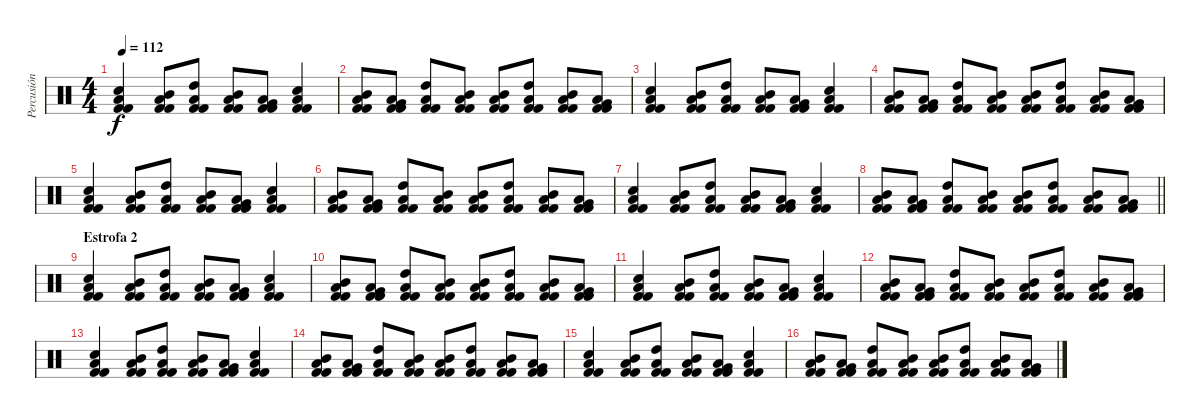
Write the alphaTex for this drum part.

\track ("Percusión" "Percusión") {instrument percussion}
\staff {score}
\articulation defaults
\ts (4 4)
\tempo 112
\clef neutral
\ks c
("Kick (hit) 2" "Electric Snare (hit)" "Low Tom (hit)" "Kick (hit) 2").4{dy f} ("Kick (hit) 2" "Mid Tom (hit)" "Low Tom (hit)" "Kick (hit) 2").8 ("Kick (hit) 2" "High Tom (hit)" "Low Tom (hit)" "Kick (hit) 2").8 ("Kick (hit) 2" "Mid Tom (hit)" "Low Tom (hit)" "Kick (hit) 2").8 ("Kick (hit) 2" "Low Tom (hit)" "Very Low Tom (hit)" "Kick (hit) 2").8 ("Kick (hit) 2" "Electric Snare (hit)" "Low Tom (hit)" "Kick (hit) 2").4 |
("Kick (hit) 2" "Low Tom (hit)" "Mid Tom (hit)" "Kick (hit) 2").8 ("Kick (hit) 2" "Very Low Tom (hit)" "Low Tom (hit)" "Kick (hit) 2").8 ("Kick (hit) 2" "High Tom (hit)" "Low Tom (hit)" "Kick (hit) 2").8 ("Kick (hit) 2" "Low Tom (hit)" "Mid Tom (hit)" "Kick (hit) 2").8 ("Kick (hit) 2" "Low Tom (hit)" "Mid Tom (hit)" "Kick (hit) 2").8 ("Kick (hit) 2" "High Tom (hit)" "Low Tom (hit)" "Kick (hit) 2").8 ("Kick (hit) 2" "Low Tom (hit)" "Mid Tom (hit)" "Kick (hit) 2").8 ("Kick (hit) 2" "Very Low Tom (hit)" "Low Tom (hit)" "Kick (hit) 2").8 |
("Kick (hit) 2" "Electric Snare (hit)" "Low Tom (hit)" "Kick (hit) 2").4 ("Kick (hit) 2" "Mid Tom (hit)" "Low Tom (hit)" "Kick (hit) 2").8 ("Kick (hit) 2" "High Tom (hit)" "Low Tom (hit)" "Kick (hit) 2").8 ("Kick (hit) 2" "Mid Tom (hit)" "Low Tom (hit)" "Kick (hit) 2").8 ("Kick (hit) 2" "Low Tom (hit)" "Very Low Tom (hit)" "Kick (hit) 2").8 ("Kick (hit) 2" "Electric Snare (hit)" "Low Tom (hit)" "Kick (hit) 2").4 |
("Kick (hit) 2" "Low Tom (hit)" "Mid Tom (hit)" "Kick (hit) 2").8 ("Kick (hit) 2" "Very Low Tom (hit)" "Low Tom (hit)" "Kick (hit) 2").8 ("Kick (hit) 2" "High Tom (hit)" "Low Tom (hit)" "Kick (hit) 2").8 ("Kick (hit) 2" "Low Tom (hit)" "Mid Tom (hit)" "Kick (hit) 2").8 ("Kick (hit) 2" "Low Tom (hit)" "Mid Tom (hit)" "Kick (hit) 2").8 ("Kick (hit) 2" "High Tom (hit)" "Low Tom (hit)" "Kick (hit) 2").8 ("Kick (hit) 2" "Low Tom (hit)" "Mid Tom (hit)" "Kick (hit) 2").8 ("Kick (hit) 2" "Very Low Tom (hit)" "Low Tom (hit)" "Kick (hit) 2").8 |
("Kick (hit) 2" "Electric Snare (hit)" "Low Tom (hit)" "Kick (hit) 2").4 ("Kick (hit) 2" "Mid Tom (hit)" "Low Tom (hit)" "Kick (hit) 2").8 ("Kick (hit) 2" "High Tom (hit)" "Low Tom (hit)" "Kick (hit) 2").8 ("Kick (hit) 2" "Mid Tom (hit)" "Low Tom (hit)" "Kick (hit) 2").8 ("Kick (hit) 2" "Low Tom (hit)" "Very Low Tom (hit)" "Kick (hit) 2").8 ("Kick (hit) 2" "Electric Snare (hit)" "Low Tom (hit)" "Kick (hit) 2").4 |
("Kick (hit) 2" "Low Tom (hit)" "Mid Tom (hit)" "Kick (hit) 2").8 ("Kick (hit) 2" "Very Low Tom (hit)" "Low Tom (hit)" "Kick (hit) 2").8 ("Kick (hit) 2" "High Tom (hit)" "Low Tom (hit)" "Kick (hit) 2").8 ("Kick (hit) 2" "Low Tom (hit)" "Mid Tom (hit)" "Kick (hit) 2").8 ("Kick (hit) 2" "Low Tom (hit)" "Mid Tom (hit)" "Kick (hit) 2").8 ("Kick (hit) 2" "High Tom (hit)" "Low Tom (hit)" "Kick (hit) 2").8 ("Kick (hit) 2" "Low Tom (hit)" "Mid Tom (hit)" "Kick (hit) 2").8 ("Kick (hit) 2" "Very Low Tom (hit)" "Low Tom (hit)" "Kick (hit) 2").8 |
("Kick (hit) 2" "Electric Snare (hit)" "Low Tom (hit)" "Kick (hit) 2").4 ("Kick (hit) 2" "Mid Tom (hit)" "Low Tom (hit)" "Kick (hit) 2").8 ("Kick (hit) 2" "High Tom (hit)" "Low Tom (hit)" "Kick (hit) 2").8 ("Kick (hit) 2" "Mid Tom (hit)" "Low Tom (hit)" "Kick (hit) 2").8 ("Kick (hit) 2" "Low Tom (hit)" "Very Low Tom (hit)" "Kick (hit) 2").8 ("Kick (hit) 2" "Electric Snare (hit)" "Low Tom (hit)" "Kick (hit) 2").4 |
\barLineRight lightlight
("Kick (hit) 2" "Low Tom (hit)" "Mid Tom (hit)" "Kick (hit) 2").8 ("Kick (hit) 2" "Very Low Tom (hit)" "Low Tom (hit)" "Kick (hit) 2").8 ("Kick (hit) 2" "High Tom (hit)" "Low Tom (hit)" "Kick (hit) 2").8 ("Kick (hit) 2" "Low Tom (hit)" "Mid Tom (hit)" "Kick (hit) 2").8 ("Kick (hit) 2" "Low Tom (hit)" "Mid Tom (hit)" "Kick (hit) 2").8 ("Kick (hit) 2" "High Tom (hit)" "Low Tom (hit)" "Kick (hit) 2").8 ("Kick (hit) 2" "Low Tom (hit)" "Mid Tom (hit)" "Kick (hit) 2").8 ("Kick (hit) 2" "Very Low Tom (hit)" "Low Tom (hit)" "Kick (hit) 2").8 |
\section ("" "Estrofa 2")
("Kick (hit) 2" "Electric Snare (hit)" "Low Tom (hit)" "Kick (hit) 2").4 ("Kick (hit) 2" "Mid Tom (hit)" "Low Tom (hit)" "Kick (hit) 2").8 ("Kick (hit) 2" "High Tom (hit)" "Low Tom (hit)" "Kick (hit) 2").8 ("Kick (hit) 2" "Mid Tom (hit)" "Low Tom (hit)" "Kick (hit) 2").8 ("Kick (hit) 2" "Low Tom (hit)" "Very Low Tom (hit)" "Kick (hit) 2").8 ("Kick (hit) 2" "Electric Snare (hit)" "Low Tom (hit)" "Kick (hit) 2").4 |
("Kick (hit) 2" "Low Tom (hit)" "Mid Tom (hit)" "Kick (hit) 2").8 ("Kick (hit) 2" "Very Low Tom (hit)" "Low Tom (hit)" "Kick (hit) 2").8 ("Kick (hit) 2" "High Tom (hit)" "Low Tom (hit)" "Kick (hit) 2").8 ("Kick (hit) 2" "Low Tom (hit)" "Mid Tom (hit)" "Kick (hit) 2").8 ("Kick (hit) 2" "Low Tom (hit)" "Mid Tom (hit)" "Kick (hit) 2").8 ("Kick (hit) 2" "High Tom (hit)" "Low Tom (hit)" "Kick (hit) 2").8 ("Kick (hit) 2" "Low Tom (hit)" "Mid Tom (hit)" "Kick (hit) 2").8 ("Kick (hit) 2" "Very Low Tom (hit)" "Low Tom (hit)" "Kick (hit) 2").8 |
("Kick (hit) 2" "Electric Snare (hit)" "Low Tom (hit)" "Kick (hit) 2").4 ("Kick (hit) 2" "Mid Tom (hit)" "Low Tom (hit)" "Kick (hit) 2").8 ("Kick (hit) 2" "High Tom (hit)" "Low Tom (hit)" "Kick (hit) 2").8 ("Kick (hit) 2" "Mid Tom (hit)" "Low Tom (hit)" "Kick (hit) 2").8 ("Kick (hit) 2" "Low Tom (hit)" "Very Low Tom (hit)" "Kick (hit) 2").8 ("Kick (hit) 2" "Electric Snare (hit)" "Low Tom (hit)" "Kick (hit) 2").4 |
("Kick (hit) 2" "Low Tom (hit)" "Mid Tom (hit)" "Kick (hit) 2").8 ("Kick (hit) 2" "Very Low Tom (hit)" "Low Tom (hit)" "Kick (hit) 2").8 ("Kick (hit) 2" "High Tom (hit)" "Low Tom (hit)" "Kick (hit) 2").8 ("Kick (hit) 2" "Low Tom (hit)" "Mid Tom (hit)" "Kick (hit) 2").8 ("Kick (hit) 2" "Low Tom (hit)" "Mid Tom (hit)" "Kick (hit) 2").8 ("Kick (hit) 2" "High Tom (hit)" "Low Tom (hit)" "Kick (hit) 2").8 ("Kick (hit) 2" "Low Tom (hit)" "Mid Tom (hit)" "Kick (hit) 2").8 ("Kick (hit) 2" "Very Low Tom (hit)" "Low Tom (hit)" "Kick (hit) 2").8 |
("Kick (hit) 2" "Electric Snare (hit)" "Low Tom (hit)" "Kick (hit) 2").4 ("Kick (hit) 2" "Mid Tom (hit)" "Low Tom (hit)" "Kick (hit) 2").8 ("Kick (hit) 2" "High Tom (hit)" "Low Tom (hit)" "Kick (hit) 2").8 ("Kick (hit) 2" "Mid Tom (hit)" "Low Tom (hit)" "Kick (hit) 2").8 ("Kick (hit) 2" "Low Tom (hit)" "Very Low Tom (hit)" "Kick (hit) 2").8 ("Kick (hit) 2" "Electric Snare (hit)" "Low Tom (hit)" "Kick (hit) 2").4 |
("Kick (hit) 2" "Low Tom (hit)" "Mid Tom (hit)" "Kick (hit) 2").8 ("Kick (hit) 2" "Very Low Tom (hit)" "Low Tom (hit)" "Kick (hit) 2").8 ("Kick (hit) 2" "High Tom (hit)" "Low Tom (hit)" "Kick (hit) 2").8 ("Kick (hit) 2" "Low Tom (hit)" "Mid Tom (hit)" "Kick (hit) 2").8 ("Kick (hit) 2" "Low Tom (hit)" "Mid Tom (hit)" "Kick (hit) 2").8 ("Kick (hit) 2" "High Tom (hit)" "Low Tom (hit)" "Kick (hit) 2").8 ("Kick (hit) 2" "Low Tom (hit)" "Mid Tom (hit)" "Kick (hit) 2").8 ("Kick (hit) 2" "Very Low Tom (hit)" "Low Tom (hit)" "Kick (hit) 2").8 |
("Kick (hit) 2" "Electric Snare (hit)" "Low Tom (hit)" "Kick (hit) 2").4 ("Kick (hit) 2" "Mid Tom (hit)" "Low Tom (hit)" "Kick (hit) 2").8 ("Kick (hit) 2" "High Tom (hit)" "Low Tom (hit)" "Kick (hit) 2").8 ("Kick (hit) 2" "Mid Tom (hit)" "Low Tom (hit)" "Kick (hit) 2").8 ("Kick (hit) 2" "Low Tom (hit)" "Very Low Tom (hit)" "Kick (hit) 2").8 ("Kick (hit) 2" "Electric Snare (hit)" "Low Tom (hit)" "Kick (hit) 2").4 |
("Kick (hit) 2" "Low Tom (hit)" "Mid Tom (hit)" "Kick (hit) 2").8 ("Kick (hit) 2" "Very Low Tom (hit)" "Low Tom (hit)" "Kick (hit) 2").8 ("Kick (hit) 2" "High Tom (hit)" "Low Tom (hit)" "Kick (hit) 2").8 ("Kick (hit) 2" "Low Tom (hit)" "Mid Tom (hit)" "Kick (hit) 2").8 ("Kick (hit) 2" "Low Tom (hit)" "Mid Tom (hit)" "Kick (hit) 2").8 ("Kick (hit) 2" "High Tom (hit)" "Low Tom (hit)" "Kick (hit) 2").8 ("Kick (hit) 2" "Low Tom (hit)" "Mid Tom (hit)" "Kick (hit) 2").8 ("Kick (hit) 2" "Very Low Tom (hit)" "Low Tom (hit)" "Kick (hit) 2").8
